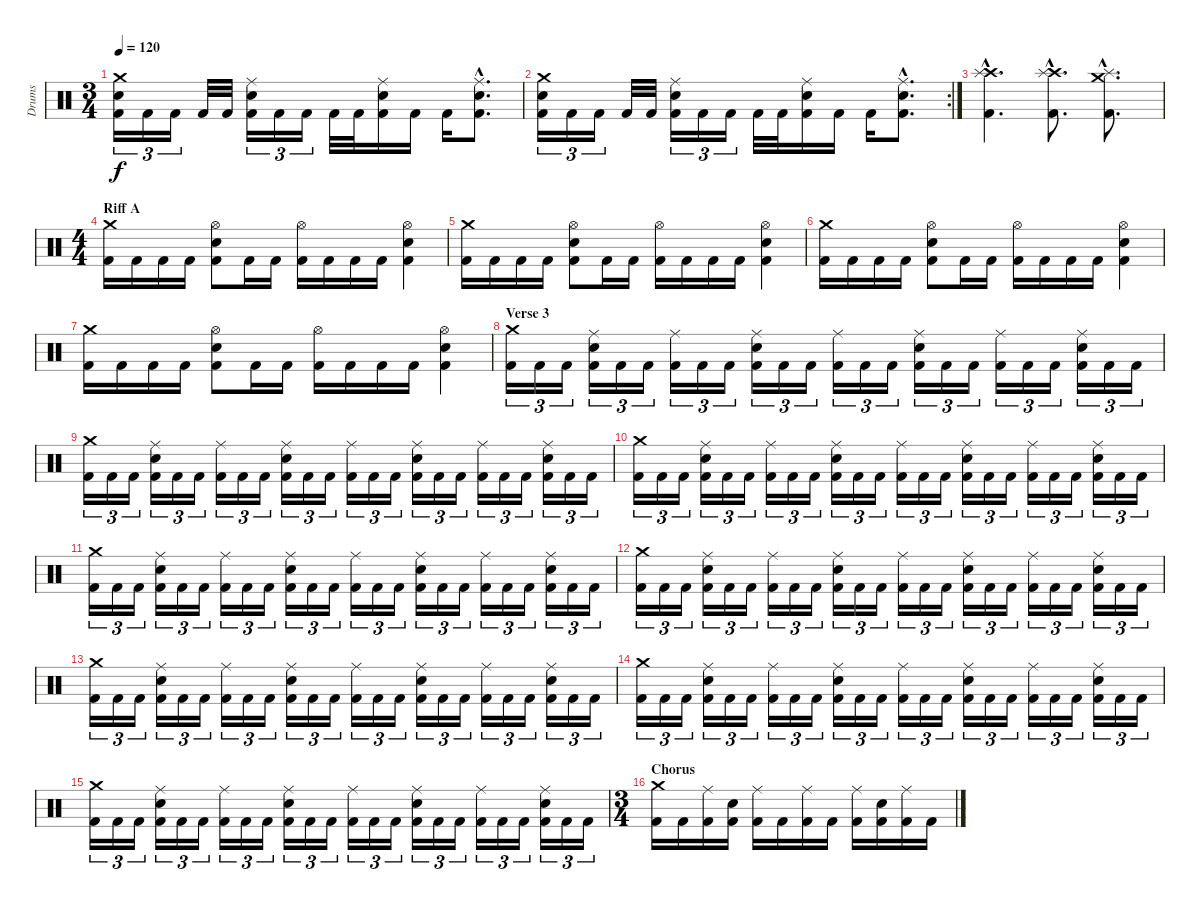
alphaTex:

\track ("Drums" "Drums") {instrument percussion}
\staff {score}
\articulation defaults
\ts (3 4)
\tempo 120
\clef neutral
\ks c
("Crash medium (hit)" "Electric Snare (hit)" "Kick (hit) 2").16{tu (3 2) dy f} "Kick (hit) 2".16{tu (3 2)} "Kick (hit) 2".16{tu (3 2)} "Kick (hit) 2".32 "Kick (hit) 2".32 ("Ride (middle)" "Electric Snare (hit)" "Kick (hit) 2").16{tu (3 2)} "Kick (hit) 2".16{tu (3 2)} "Kick (hit) 2".16{tu (3 2)} "Kick (hit) 2".32 "Kick (hit) 2".32 ("Ride (middle)" "Electric Snare (hit)" "Kick (hit) 2").16 "Kick (hit) 2".16 "Kick (hit) 2".16 ("Ride (middle)"{hac} "Electric Snare (hit)"{hac} "Kick (hit) 2"{hac}).8{d} |
\rc 2
("Crash medium (hit)" "Electric Snare (hit)" "Kick (hit) 2").16{tu (3 2)} "Kick (hit) 2".16{tu (3 2)} "Kick (hit) 2".16{tu (3 2)} "Kick (hit) 2".32 "Kick (hit) 2".32 ("Ride (middle)" "Electric Snare (hit)" "Kick (hit) 2").16{tu (3 2)} "Kick (hit) 2".16{tu (3 2)} "Kick (hit) 2".16{tu (3 2)} "Kick (hit) 2".32 "Kick (hit) 2".32 ("Ride (middle)" "Electric Snare (hit)" "Kick (hit) 2").16 "Kick (hit) 2".16 "Kick (hit) 2".16 ("Ride (middle)"{hac} "Electric Snare (hit)"{hac} "Kick (hit) 2"{hac}).8{d} |
("Crash high (hit)"{hac} "Splash (hit)"{hac} "Kick (hit) 2"{hac}).4{d} ("Crash high (hit)"{hac} "Splash (hit)"{hac} "Kick (hit) 2"{hac}).8{d} ("Crash medium (hit)"{hac} "Splash (hit)"{hac} "Kick (hit) 2"{hac}).8{d} |
\ts (4 4)
\section ("" "Riff A")
("Crash medium (hit)" "Kick (hit) 2").16 "Kick (hit) 2".16 "Kick (hit) 2".16 "Kick (hit) 2".16 ("Hi-Hat (open)" "Electric Snare (hit)" "Kick (hit) 2").8 "Kick (hit) 2".16 "Kick (hit) 2".16 ("Hi-Hat (open)" "Kick (hit) 2").16 "Kick (hit) 2".16 "Kick (hit) 2".16 "Kick (hit) 2".16 ("Hi-Hat (open)" "Electric Snare (hit)" "Kick (hit) 2").4 |
("Crash medium (hit)" "Kick (hit) 2").16 "Kick (hit) 2".16 "Kick (hit) 2".16 "Kick (hit) 2".16 ("Hi-Hat (open)" "Electric Snare (hit)" "Kick (hit) 2").8 "Kick (hit) 2".16 "Kick (hit) 2".16 ("Hi-Hat (open)" "Kick (hit) 2").16 "Kick (hit) 2".16 "Kick (hit) 2".16 "Kick (hit) 2".16 ("Hi-Hat (open)" "Electric Snare (hit)" "Kick (hit) 2").4 |
("Crash medium (hit)" "Kick (hit) 2").16 "Kick (hit) 2".16 "Kick (hit) 2".16 "Kick (hit) 2".16 ("Hi-Hat (open)" "Electric Snare (hit)" "Kick (hit) 2").8 "Kick (hit) 2".16 "Kick (hit) 2".16 ("Hi-Hat (open)" "Kick (hit) 2").16 "Kick (hit) 2".16 "Kick (hit) 2".16 "Kick (hit) 2".16 ("Hi-Hat (open)" "Electric Snare (hit)" "Kick (hit) 2").4 |
("Crash medium (hit)" "Kick (hit) 2").16 "Kick (hit) 2".16 "Kick (hit) 2".16 "Kick (hit) 2".16 ("Hi-Hat (open)" "Electric Snare (hit)" "Kick (hit) 2").8 "Kick (hit) 2".16 "Kick (hit) 2".16 ("Hi-Hat (open)" "Kick (hit) 2").16 "Kick (hit) 2".16 "Kick (hit) 2".16 "Kick (hit) 2".16 ("Hi-Hat (open)" "Electric Snare (hit)" "Kick (hit) 2").4 |
\section ("" "Verse 3")
("Crash medium (hit)" "Kick (hit) 2").16{tu (3 2)} "Kick (hit) 2".16{tu (3 2)} "Kick (hit) 2".16{tu (3 2)} ("Ride (middle)" "Electric Snare (hit)" "Kick (hit) 2").16{tu (3 2)} "Kick (hit) 2".16{tu (3 2)} "Kick (hit) 2".16{tu (3 2)} ("Ride (middle)" "Kick (hit) 2").16{tu (3 2)} "Kick (hit) 2".16{tu (3 2)} "Kick (hit) 2".16{tu (3 2)} ("Ride (middle)" "Electric Snare (hit)" "Kick (hit) 2").16{tu (3 2)} "Kick (hit) 2".16{tu (3 2)} "Kick (hit) 2".16{tu (3 2)} ("Ride (middle)" "Kick (hit) 2").16{tu (3 2)} "Kick (hit) 2".16{tu (3 2)} "Kick (hit) 2".16{tu (3 2)} ("Ride (middle)" "Electric Snare (hit)" "Kick (hit) 2").16{tu (3 2)} "Kick (hit) 2".16{tu (3 2)} "Kick (hit) 2".16{tu (3 2)} ("Ride (middle)" "Kick (hit) 2").16{tu (3 2)} "Kick (hit) 2".16{tu (3 2)} "Kick (hit) 2".16{tu (3 2)} ("Ride (middle)" "Electric Snare (hit)" "Kick (hit) 2").16{tu (3 2)} "Kick (hit) 2".16{tu (3 2)} "Kick (hit) 2".16{tu (3 2)} |
("Crash medium (hit)" "Kick (hit) 2").16{tu (3 2)} "Kick (hit) 2".16{tu (3 2)} "Kick (hit) 2".16{tu (3 2)} ("Ride (middle)" "Electric Snare (hit)" "Kick (hit) 2").16{tu (3 2)} "Kick (hit) 2".16{tu (3 2)} "Kick (hit) 2".16{tu (3 2)} ("Ride (middle)" "Kick (hit) 2").16{tu (3 2)} "Kick (hit) 2".16{tu (3 2)} "Kick (hit) 2".16{tu (3 2)} ("Ride (middle)" "Electric Snare (hit)" "Kick (hit) 2").16{tu (3 2)} "Kick (hit) 2".16{tu (3 2)} "Kick (hit) 2".16{tu (3 2)} ("Ride (middle)" "Kick (hit) 2").16{tu (3 2)} "Kick (hit) 2".16{tu (3 2)} "Kick (hit) 2".16{tu (3 2)} ("Ride (middle)" "Electric Snare (hit)" "Kick (hit) 2").16{tu (3 2)} "Kick (hit) 2".16{tu (3 2)} "Kick (hit) 2".16{tu (3 2)} ("Ride (middle)" "Kick (hit) 2").16{tu (3 2)} "Kick (hit) 2".16{tu (3 2)} "Kick (hit) 2".16{tu (3 2)} ("Ride (middle)" "Electric Snare (hit)" "Kick (hit) 2").16{tu (3 2)} "Kick (hit) 2".16{tu (3 2)} "Kick (hit) 2".16{tu (3 2)} |
("Crash medium (hit)" "Kick (hit) 2").16{tu (3 2)} "Kick (hit) 2".16{tu (3 2)} "Kick (hit) 2".16{tu (3 2)} ("Ride (middle)" "Electric Snare (hit)" "Kick (hit) 2").16{tu (3 2)} "Kick (hit) 2".16{tu (3 2)} "Kick (hit) 2".16{tu (3 2)} ("Ride (middle)" "Kick (hit) 2").16{tu (3 2)} "Kick (hit) 2".16{tu (3 2)} "Kick (hit) 2".16{tu (3 2)} ("Ride (middle)" "Electric Snare (hit)" "Kick (hit) 2").16{tu (3 2)} "Kick (hit) 2".16{tu (3 2)} "Kick (hit) 2".16{tu (3 2)} ("Ride (middle)" "Kick (hit) 2").16{tu (3 2)} "Kick (hit) 2".16{tu (3 2)} "Kick (hit) 2".16{tu (3 2)} ("Ride (middle)" "Electric Snare (hit)" "Kick (hit) 2").16{tu (3 2)} "Kick (hit) 2".16{tu (3 2)} "Kick (hit) 2".16{tu (3 2)} ("Ride (middle)" "Kick (hit) 2").16{tu (3 2)} "Kick (hit) 2".16{tu (3 2)} "Kick (hit) 2".16{tu (3 2)} ("Ride (middle)" "Electric Snare (hit)" "Kick (hit) 2").16{tu (3 2)} "Kick (hit) 2".16{tu (3 2)} "Kick (hit) 2".16{tu (3 2)} |
("Crash medium (hit)" "Kick (hit) 2").16{tu (3 2)} "Kick (hit) 2".16{tu (3 2)} "Kick (hit) 2".16{tu (3 2)} ("Ride (middle)" "Electric Snare (hit)" "Kick (hit) 2").16{tu (3 2)} "Kick (hit) 2".16{tu (3 2)} "Kick (hit) 2".16{tu (3 2)} ("Ride (middle)" "Kick (hit) 2").16{tu (3 2)} "Kick (hit) 2".16{tu (3 2)} "Kick (hit) 2".16{tu (3 2)} ("Ride (middle)" "Electric Snare (hit)" "Kick (hit) 2").16{tu (3 2)} "Kick (hit) 2".16{tu (3 2)} "Kick (hit) 2".16{tu (3 2)} ("Ride (middle)" "Kick (hit) 2").16{tu (3 2)} "Kick (hit) 2".16{tu (3 2)} "Kick (hit) 2".16{tu (3 2)} ("Ride (middle)" "Electric Snare (hit)" "Kick (hit) 2").16{tu (3 2)} "Kick (hit) 2".16{tu (3 2)} "Kick (hit) 2".16{tu (3 2)} ("Ride (middle)" "Kick (hit) 2").16{tu (3 2)} "Kick (hit) 2".16{tu (3 2)} "Kick (hit) 2".16{tu (3 2)} ("Ride (middle)" "Electric Snare (hit)" "Kick (hit) 2").16{tu (3 2)} "Kick (hit) 2".16{tu (3 2)} "Kick (hit) 2".16{tu (3 2)} |
("Crash medium (hit)" "Kick (hit) 2").16{tu (3 2)} "Kick (hit) 2".16{tu (3 2)} "Kick (hit) 2".16{tu (3 2)} ("Ride (middle)" "Electric Snare (hit)" "Kick (hit) 2").16{tu (3 2)} "Kick (hit) 2".16{tu (3 2)} "Kick (hit) 2".16{tu (3 2)} ("Ride (middle)" "Kick (hit) 2").16{tu (3 2)} "Kick (hit) 2".16{tu (3 2)} "Kick (hit) 2".16{tu (3 2)} ("Ride (middle)" "Electric Snare (hit)" "Kick (hit) 2").16{tu (3 2)} "Kick (hit) 2".16{tu (3 2)} "Kick (hit) 2".16{tu (3 2)} ("Ride (middle)" "Kick (hit) 2").16{tu (3 2)} "Kick (hit) 2".16{tu (3 2)} "Kick (hit) 2".16{tu (3 2)} ("Ride (middle)" "Electric Snare (hit)" "Kick (hit) 2").16{tu (3 2)} "Kick (hit) 2".16{tu (3 2)} "Kick (hit) 2".16{tu (3 2)} ("Ride (middle)" "Kick (hit) 2").16{tu (3 2)} "Kick (hit) 2".16{tu (3 2)} "Kick (hit) 2".16{tu (3 2)} ("Ride (middle)" "Electric Snare (hit)" "Kick (hit) 2").16{tu (3 2)} "Kick (hit) 2".16{tu (3 2)} "Kick (hit) 2".16{tu (3 2)} |
("Crash medium (hit)" "Kick (hit) 2").16{tu (3 2)} "Kick (hit) 2".16{tu (3 2)} "Kick (hit) 2".16{tu (3 2)} ("Ride (middle)" "Electric Snare (hit)" "Kick (hit) 2").16{tu (3 2)} "Kick (hit) 2".16{tu (3 2)} "Kick (hit) 2".16{tu (3 2)} ("Ride (middle)" "Kick (hit) 2").16{tu (3 2)} "Kick (hit) 2".16{tu (3 2)} "Kick (hit) 2".16{tu (3 2)} ("Ride (middle)" "Electric Snare (hit)" "Kick (hit) 2").16{tu (3 2)} "Kick (hit) 2".16{tu (3 2)} "Kick (hit) 2".16{tu (3 2)} ("Ride (middle)" "Kick (hit) 2").16{tu (3 2)} "Kick (hit) 2".16{tu (3 2)} "Kick (hit) 2".16{tu (3 2)} ("Ride (middle)" "Electric Snare (hit)" "Kick (hit) 2").16{tu (3 2)} "Kick (hit) 2".16{tu (3 2)} "Kick (hit) 2".16{tu (3 2)} ("Ride (middle)" "Kick (hit) 2").16{tu (3 2)} "Kick (hit) 2".16{tu (3 2)} "Kick (hit) 2".16{tu (3 2)} ("Ride (middle)" "Electric Snare (hit)" "Kick (hit) 2").16{tu (3 2)} "Kick (hit) 2".16{tu (3 2)} "Kick (hit) 2".16{tu (3 2)} |
("Crash medium (hit)" "Kick (hit) 2").16{tu (3 2)} "Kick (hit) 2".16{tu (3 2)} "Kick (hit) 2".16{tu (3 2)} ("Ride (middle)" "Electric Snare (hit)" "Kick (hit) 2").16{tu (3 2)} "Kick (hit) 2".16{tu (3 2)} "Kick (hit) 2".16{tu (3 2)} ("Ride (middle)" "Kick (hit) 2").16{tu (3 2)} "Kick (hit) 2".16{tu (3 2)} "Kick (hit) 2".16{tu (3 2)} ("Ride (middle)" "Electric Snare (hit)" "Kick (hit) 2").16{tu (3 2)} "Kick (hit) 2".16{tu (3 2)} "Kick (hit) 2".16{tu (3 2)} ("Ride (middle)" "Kick (hit) 2").16{tu (3 2)} "Kick (hit) 2".16{tu (3 2)} "Kick (hit) 2".16{tu (3 2)} ("Ride (middle)" "Electric Snare (hit)" "Kick (hit) 2").16{tu (3 2)} "Kick (hit) 2".16{tu (3 2)} "Kick (hit) 2".16{tu (3 2)} ("Ride (middle)" "Kick (hit) 2").16{tu (3 2)} "Kick (hit) 2".16{tu (3 2)} "Kick (hit) 2".16{tu (3 2)} ("Ride (middle)" "Electric Snare (hit)" "Kick (hit) 2").16{tu (3 2)} "Kick (hit) 2".16{tu (3 2)} "Kick (hit) 2".16{tu (3 2)} |
("Crash medium (hit)" "Kick (hit) 2").16{tu (3 2)} "Kick (hit) 2".16{tu (3 2)} "Kick (hit) 2".16{tu (3 2)} ("Ride (middle)" "Electric Snare (hit)" "Kick (hit) 2").16{tu (3 2)} "Kick (hit) 2".16{tu (3 2)} "Kick (hit) 2".16{tu (3 2)} ("Ride (middle)" "Kick (hit) 2").16{tu (3 2)} "Kick (hit) 2".16{tu (3 2)} "Kick (hit) 2".16{tu (3 2)} ("Ride (middle)" "Electric Snare (hit)" "Kick (hit) 2").16{tu (3 2)} "Kick (hit) 2".16{tu (3 2)} "Kick (hit) 2".16{tu (3 2)} ("Ride (middle)" "Kick (hit) 2").16{tu (3 2)} "Kick (hit) 2".16{tu (3 2)} "Kick (hit) 2".16{tu (3 2)} ("Ride (middle)" "Electric Snare (hit)" "Kick (hit) 2").16{tu (3 2)} "Kick (hit) 2".16{tu (3 2)} "Kick (hit) 2".16{tu (3 2)} ("Ride (middle)" "Kick (hit) 2").16{tu (3 2)} "Kick (hit) 2".16{tu (3 2)} "Kick (hit) 2".16{tu (3 2)} ("Ride (middle)" "Electric Snare (hit)" "Kick (hit) 2").16{tu (3 2)} "Kick (hit) 2".16{tu (3 2)} "Kick (hit) 2".16{tu (3 2)} |
\ts (3 4)
\section ("" "Chorus")
("Crash medium (hit)" "Kick (hit) 2").16 "Kick (hit) 2".16 ("Ride (middle)" "Kick (hit) 2").16 ("Electric Snare (hit)" "Kick (hit) 2").16 ("Ride (middle)" "Kick (hit) 2").16 "Kick (hit) 2".16 ("Ride (middle)" "Kick (hit) 2").16 "Kick (hit) 2".16 ("Ride (middle)" "Kick (hit) 2").16 ("Electric Snare (hit)" "Kick (hit) 2").16 ("Ride (middle)" "Kick (hit) 2").16 "Kick (hit) 2".16
